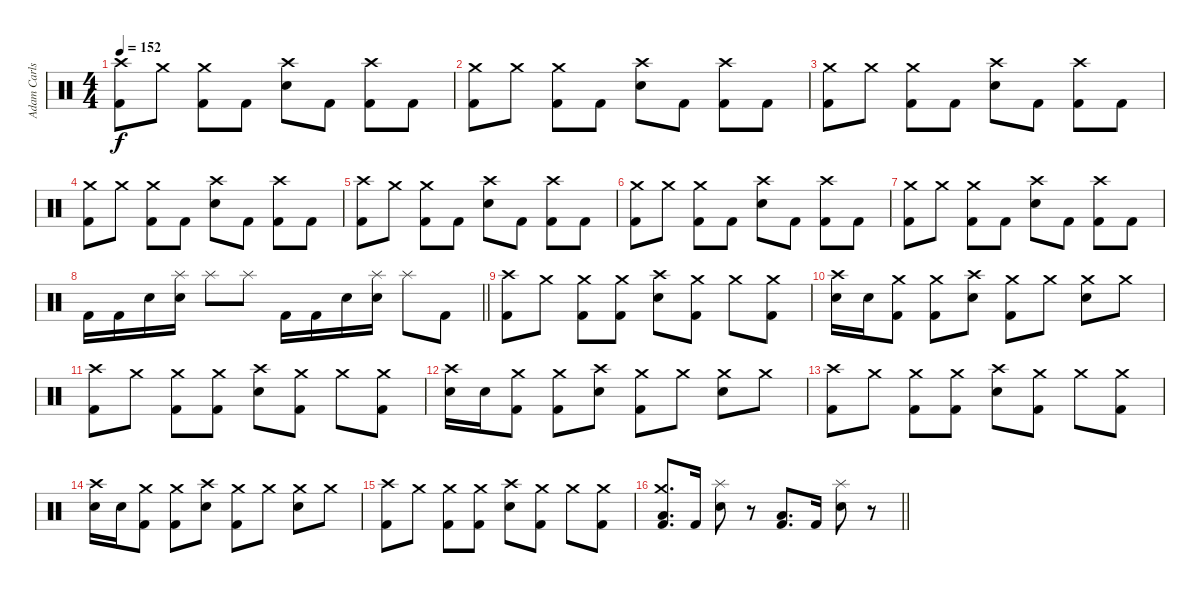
\track ("Adam Carlson" "Adam Carls") {instrument percussion}
\staff {score}
\articulation defaults
\ts (4 4)
\tempo 152
\clef neutral
\ks c
("Crash high (hit)" "Kick (hit) 2").8{dy f} "Crash medium (hit)".8 ("Crash medium (hit)" "Kick (hit) 2").8 "Kick (hit) 2".8 ("Electric Snare (hit)" "Crash high (hit)").8 "Kick (hit) 2".8 ("Kick (hit) 2" "Crash high (hit)").8 "Kick (hit) 2".8 |
("Crash medium (hit)" "Kick (hit) 2").8 "Crash medium (hit)".8 ("Crash medium (hit)" "Kick (hit) 2").8 "Kick (hit) 2".8 ("Electric Snare (hit)" "Crash high (hit)").8 "Kick (hit) 2".8 ("Kick (hit) 2" "Crash high (hit)").8 "Kick (hit) 2".8 |
("Crash medium (hit)" "Kick (hit) 2").8 "Crash medium (hit)".8 ("Crash medium (hit)" "Kick (hit) 2").8 "Kick (hit) 2".8 ("Electric Snare (hit)" "Crash high (hit)").8 "Kick (hit) 2".8 ("Kick (hit) 2" "Crash high (hit)").8 "Kick (hit) 2".8 |
("Crash medium (hit)" "Kick (hit) 2").8 "Crash medium (hit)".8 ("Crash medium (hit)" "Kick (hit) 2").8 "Kick (hit) 2".8 ("Electric Snare (hit)" "Crash high (hit)").8 "Kick (hit) 2".8 ("Kick (hit) 2" "Crash high (hit)").8 "Kick (hit) 2".8 |
("Crash high (hit)" "Kick (hit) 2").8 "Crash medium (hit)".8 ("Crash medium (hit)" "Kick (hit) 2").8 "Kick (hit) 2".8 ("Electric Snare (hit)" "Crash high (hit)").8 "Kick (hit) 2".8 ("Kick (hit) 2" "Crash high (hit)").8 "Kick (hit) 2".8 |
("Crash medium (hit)" "Kick (hit) 2").8 "Crash medium (hit)".8 ("Crash medium (hit)" "Kick (hit) 2").8 "Kick (hit) 2".8 ("Electric Snare (hit)" "Crash high (hit)").8 "Kick (hit) 2".8 ("Kick (hit) 2" "Crash high (hit)").8 "Kick (hit) 2".8 |
("Crash medium (hit)" "Kick (hit) 2").8 "Crash medium (hit)".8 ("Crash medium (hit)" "Kick (hit) 2").8 "Kick (hit) 2".8 ("Electric Snare (hit)" "Crash high (hit)").8 "Kick (hit) 2".8 ("Kick (hit) 2" "Crash high (hit)").8 "Kick (hit) 2".8 |
\barLineRight lightlight "Kick (hit) 2".16 "Kick (hit) 2".16 "Electric Snare (hit)".16
("Splash (hit)" "Electric Snare (hit)").16 "Splash (hit)".8 "Splash (hit)".8 "Kick (hit) 2".16 "Kick (hit) 2".16 "Electric Snare (hit)".16 ("Splash (hit)" "Electric Snare (hit)").16 "Splash (hit)".8 "Kick (hit) 2".8 |
("Crash high (hit)" "Kick (hit) 2").8 "Crash medium (hit)".8 ("Crash medium (hit)" "Kick (hit) 2").8 ("Kick (hit) 2" "Crash medium (hit)").8 ("Electric Snare (hit)" "Crash high (hit)").8 ("Crash medium (hit)" "Kick (hit) 2").8 "Crash medium (hit)".8 ("Crash medium (hit)" "Kick (hit) 2").8 |
("Crash high (hit)" "Electric Snare (hit)").16 "Electric Snare (hit)".16 ("Crash medium (hit)" "Kick (hit) 2").8 ("Crash medium (hit)" "Kick (hit) 2").8 ("Electric Snare (hit)" "Crash high (hit)").8 ("Crash medium (hit)" "Kick (hit) 2").8 "Crash medium (hit)".8 ("Crash medium (hit)" "Electric Snare (hit)").8 "Crash medium (hit)".8 |
("Crash high (hit)" "Kick (hit) 2").8 "Crash medium (hit)".8 ("Crash medium (hit)" "Kick (hit) 2").8 ("Kick (hit) 2" "Crash medium (hit)").8 ("Electric Snare (hit)" "Crash high (hit)").8 ("Crash medium (hit)" "Kick (hit) 2").8 "Crash medium (hit)".8 ("Crash medium (hit)" "Kick (hit) 2").8 |
("Crash high (hit)" "Electric Snare (hit)").16 "Electric Snare (hit)".16 ("Crash medium (hit)" "Kick (hit) 2").8 ("Crash medium (hit)" "Kick (hit) 2").8 ("Electric Snare (hit)" "Crash high (hit)").8 ("Crash medium (hit)" "Kick (hit) 2").8 "Crash medium (hit)".8 ("Crash medium (hit)" "Electric Snare (hit)").8 "Crash medium (hit)".8 |
("Crash high (hit)" "Kick (hit) 2").8 "Crash medium (hit)".8 ("Crash medium (hit)" "Kick (hit) 2").8 ("Kick (hit) 2" "Crash medium (hit)").8 ("Electric Snare (hit)" "Crash high (hit)").8 ("Crash medium (hit)" "Kick (hit) 2").8 "Crash medium (hit)".8 ("Crash medium (hit)" "Kick (hit) 2").8 |
("Crash high (hit)" "Electric Snare (hit)").16 "Electric Snare (hit)".16 ("Crash medium (hit)" "Kick (hit) 2").8 ("Crash medium (hit)" "Kick (hit) 2").8 ("Electric Snare (hit)" "Crash high (hit)").8 ("Crash medium (hit)" "Kick (hit) 2").8 "Crash medium (hit)".8 ("Crash medium (hit)" "Electric Snare (hit)").8 "Crash medium (hit)".8 |
("Crash high (hit)" "Kick (hit) 2").8 "Crash medium (hit)".8 ("Crash medium (hit)" "Kick (hit) 2").8 ("Kick (hit) 2" "Crash medium (hit)").8 ("Electric Snare (hit)" "Crash high (hit)").8 ("Crash medium (hit)" "Kick (hit) 2").8 "Crash medium (hit)".8 ("Crash medium (hit)" "Kick (hit) 2").8 |
\barLineRight lightlight
("Crash medium (hit)" "Kick (hit) 2" "Low Floor Tom (hit)").8{d} "Kick (hit) 2".16 ("Splash (hit)" "Electric Snare (hit)").8 r.8 ("Kick (hit) 2" "Low Floor Tom (hit)").8{d} "Kick (hit) 2".16 ("Splash (hit)" "Electric Snare (hit)").8 r.8
